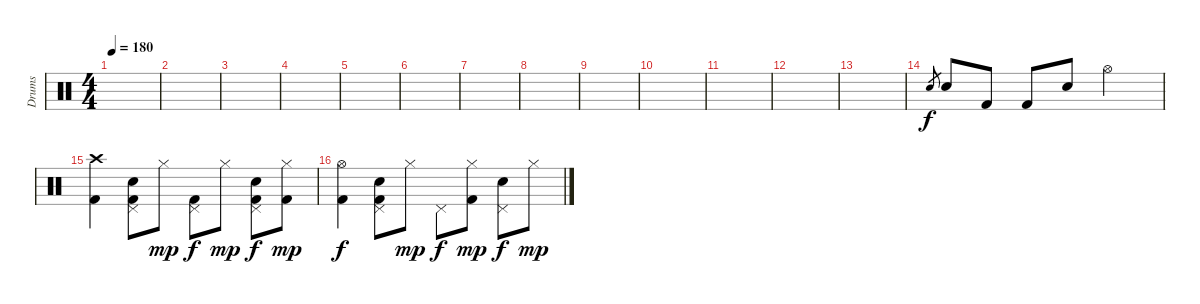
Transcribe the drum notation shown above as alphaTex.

\track ("Drums" "Drums") {instrument percussion}
\staff {score}
\articulation defaults
\ts (4 4)
\tempo 180
\clef neutral
\ks c
|
|
|
|
|
|
|
|
|
|
|
|
|
"Electric Snare (hit)".8{gr} "Electric Snare (hit)".8 "Kick (hit) 2".8 "Kick (hit) 2".8 "Electric Snare (hit)".8{dy f} "Hi-Hat (open)".2 |
("Crash high (hit)" "Kick (hit) 2").4 ("Pedal Hi-Hat (hit)" "Electric Snare (hit)" "Kick (hit) 2").8 "Hi-Hat (closed)".8{dy mp} ("Pedal Hi-Hat (hit)" "Kick (hit) 2").8{dy f} "Hi-Hat (closed)".8{dy mp} ("Pedal Hi-Hat (hit)" "Electric Snare (hit)" "Kick (hit) 2").8{dy f} ("Hi-Hat (closed)" "Kick (hit) 2").8{dy mp} |
("Hi-Hat (open)" "Kick (hit) 2").4{dy f} ("Pedal Hi-Hat (hit)" "Electric Snare (hit)" "Kick (hit) 2").8 "Hi-Hat (closed)".8{dy mp} "Pedal Hi-Hat (hit)".8{dy f} ("Hi-Hat (closed)" "Kick (hit) 2").8{dy mp} ("Pedal Hi-Hat (hit)" "Electric Snare (hit)").8{dy f} "Hi-Hat (closed)".8{dy mp}
